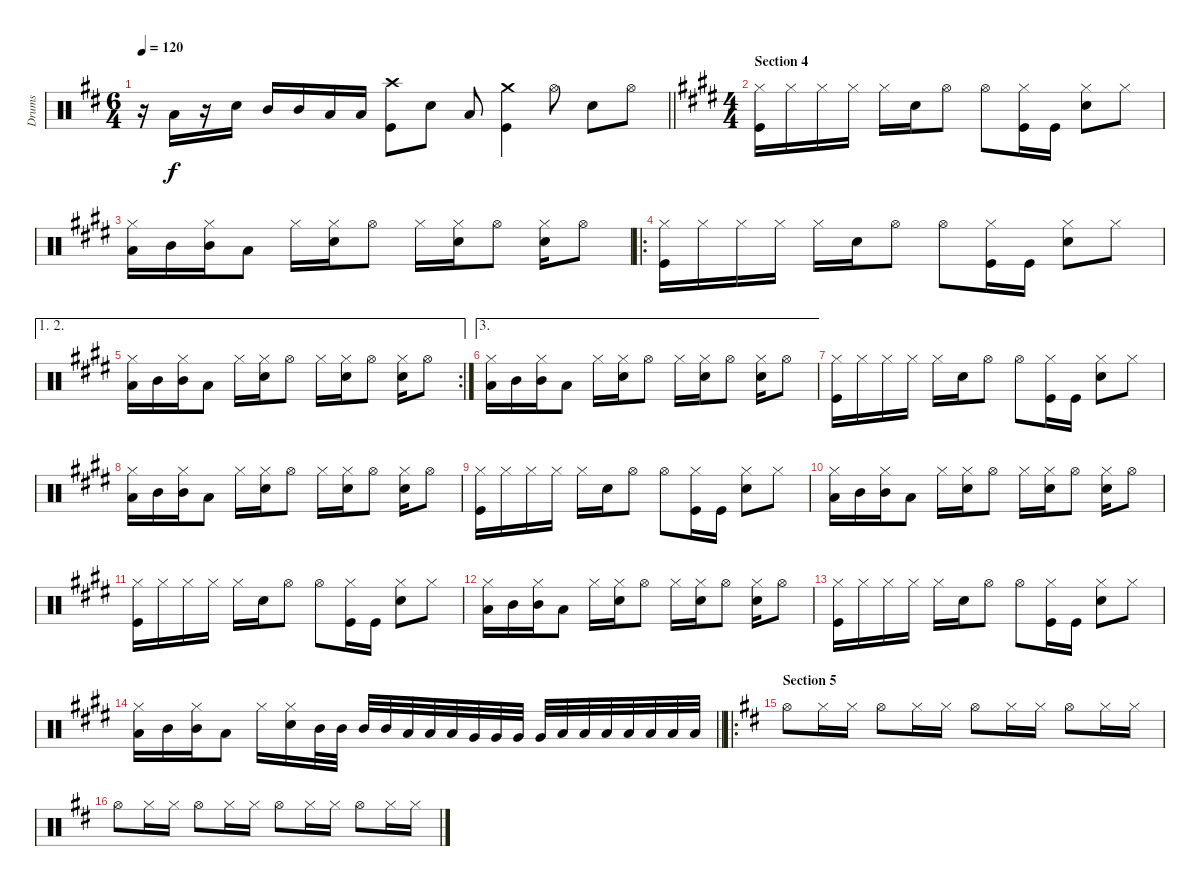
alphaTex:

\track ("Drums" "Drums") {instrument percussion}
\staff {score}
\articulation defaults
\ts (6 4)
\tempo 120
\clef neutral
\barLineRight lightlight
\ks d
r.16{dy f} "Low Tom (hit)".16 r.16 "Snare (hit) 2".16 "Mid Tom (hit)".16 "Mid Tom (hit)".16 "Low Tom (hit)".16 "Low Tom (hit)".16 ("Crash high (hit)" "Kick (hit)").8 "Snare (hit) 2".8 "Low Tom (hit)".8 ("Crash medium (hit)" "Kick (hit)").4 "Hi-Hat (open)".8 "Snare (hit) 2".8 "Hi-Hat (open)".8 |
\ts (4 4)
\section ("" "Section 4")
\ks e
("Hi-Hat (closed)" "Kick (hit)").16 "Hi-Hat (closed)".16 "Hi-Hat (closed)".16 "Hi-Hat (closed)".16 "Hi-Hat (closed)".16 "Snare (hit) 2".16 "Hi-Hat (open)".8 "Hi-Hat (open)".8 ("Hi-Hat (closed)" "Kick (hit)").16 "Kick (hit)".16 ("Hi-Hat (closed)" "Snare (hit) 2").8 "Hi-Hat (closed)".8 |
("Hi-Hat (closed)" "Low Tom (hit)").16 "Mid Tom (hit)".16 ("Hi-Hat (closed)" "Mid Tom (hit)").16 "Low Tom (hit)".8 "Hi-Hat (closed)".16 ("Hi-Hat (closed)" "Snare (hit) 2").16 "Hi-Hat (open)".8 "Hi-Hat (closed)".16 ("Hi-Hat (closed)" "Snare (hit) 2").16 "Hi-Hat (open)".8 ("Hi-Hat (closed)" "Snare (hit) 2").16 "Hi-Hat (open)".8 |
\ro
("Hi-Hat (closed)" "Kick (hit)").16 "Hi-Hat (closed)".16 "Hi-Hat (closed)".16 "Hi-Hat (closed)".16 "Hi-Hat (closed)".16 "Snare (hit) 2".16 "Hi-Hat (open)".8 "Hi-Hat (open)".8 ("Hi-Hat (closed)" "Kick (hit)").16 "Kick (hit)".16 ("Hi-Hat (closed)" "Snare (hit) 2").8 "Hi-Hat (closed)".8 |
\ae (1 2)
\rc 2
("Hi-Hat (closed)" "Low Tom (hit)").16 "Mid Tom (hit)".16 ("Hi-Hat (closed)" "Mid Tom (hit)").16 "Low Tom (hit)".8 "Hi-Hat (closed)".16 ("Hi-Hat (closed)" "Snare (hit) 2").16 "Hi-Hat (open)".8 "Hi-Hat (closed)".16 ("Hi-Hat (closed)" "Snare (hit) 2").16 "Hi-Hat (open)".8 ("Hi-Hat (closed)" "Snare (hit) 2").16 "Hi-Hat (open)".8 |
\ae 3
("Hi-Hat (closed)" "Low Tom (hit)").16 "Mid Tom (hit)".16 ("Hi-Hat (closed)" "Mid Tom (hit)").16 "Low Tom (hit)".8 "Hi-Hat (closed)".16 ("Hi-Hat (closed)" "Snare (hit) 2").16 "Hi-Hat (open)".8 "Hi-Hat (closed)".16 ("Hi-Hat (closed)" "Snare (hit) 2").16 "Hi-Hat (open)".8 ("Hi-Hat (closed)" "Snare (hit) 2").16 "Hi-Hat (open)".8 |
("Hi-Hat (closed)" "Kick (hit)").16 "Hi-Hat (closed)".16 "Hi-Hat (closed)".16 "Hi-Hat (closed)".16 "Hi-Hat (closed)".16 "Snare (hit) 2".16 "Hi-Hat (open)".8 "Hi-Hat (open)".8 ("Hi-Hat (closed)" "Kick (hit)").16 "Kick (hit)".16 ("Hi-Hat (closed)" "Snare (hit) 2").8 "Hi-Hat (closed)".8 |
("Hi-Hat (closed)" "Low Tom (hit)").16 "Mid Tom (hit)".16 ("Hi-Hat (closed)" "Mid Tom (hit)").16 "Low Tom (hit)".8 "Hi-Hat (closed)".16 ("Hi-Hat (closed)" "Snare (hit) 2").16 "Hi-Hat (open)".8 "Hi-Hat (closed)".16 ("Hi-Hat (closed)" "Snare (hit) 2").16 "Hi-Hat (open)".8 ("Hi-Hat (closed)" "Snare (hit) 2").16 "Hi-Hat (open)".8 |
("Hi-Hat (closed)" "Kick (hit)").16 "Hi-Hat (closed)".16 "Hi-Hat (closed)".16 "Hi-Hat (closed)".16 "Hi-Hat (closed)".16 "Snare (hit) 2".16 "Hi-Hat (open)".8 "Hi-Hat (open)".8 ("Hi-Hat (closed)" "Kick (hit)").16 "Kick (hit)".16 ("Hi-Hat (closed)" "Snare (hit) 2").8 "Hi-Hat (closed)".8 |
("Hi-Hat (closed)" "Low Tom (hit)").16 "Mid Tom (hit)".16 ("Hi-Hat (closed)" "Mid Tom (hit)").16 "Low Tom (hit)".8 "Hi-Hat (closed)".16 ("Hi-Hat (closed)" "Snare (hit) 2").16 "Hi-Hat (open)".8 "Hi-Hat (closed)".16 ("Hi-Hat (closed)" "Snare (hit) 2").16 "Hi-Hat (open)".8 ("Hi-Hat (closed)" "Snare (hit) 2").16 "Hi-Hat (open)".8 |
("Hi-Hat (closed)" "Kick (hit)").16 "Hi-Hat (closed)".16 "Hi-Hat (closed)".16 "Hi-Hat (closed)".16 "Hi-Hat (closed)".16 "Snare (hit) 2".16 "Hi-Hat (open)".8 "Hi-Hat (open)".8 ("Hi-Hat (closed)" "Kick (hit)").16 "Kick (hit)".16 ("Hi-Hat (closed)" "Snare (hit) 2").8 "Hi-Hat (closed)".8 |
("Hi-Hat (closed)" "Low Tom (hit)").16 "Mid Tom (hit)".16 ("Hi-Hat (closed)" "Mid Tom (hit)").16 "Low Tom (hit)".8 "Hi-Hat (closed)".16 ("Hi-Hat (closed)" "Snare (hit) 2").16 "Hi-Hat (open)".8 "Hi-Hat (closed)".16 ("Hi-Hat (closed)" "Snare (hit) 2").16 "Hi-Hat (open)".8 ("Hi-Hat (closed)" "Snare (hit) 2").16 "Hi-Hat (open)".8 |
("Hi-Hat (closed)" "Kick (hit)").16 "Hi-Hat (closed)".16 "Hi-Hat (closed)".16 "Hi-Hat (closed)".16 "Hi-Hat (closed)".16 "Snare (hit) 2".16 "Hi-Hat (open)".8 "Hi-Hat (open)".8 ("Hi-Hat (closed)" "Kick (hit)").16 "Kick (hit)".16 ("Hi-Hat (closed)" "Snare (hit) 2").8 "Hi-Hat (closed)".8 |
\barLineRight lightlight
("Hi-Hat (closed)" "Low Tom (hit)").16 "Mid Tom (hit)".16 ("Hi-Hat (closed)" "Mid Tom (hit)").16 "Low Tom (hit)".8 "Hi-Hat (closed)".16 ("Hi-Hat (closed)" "Snare (hit) 2").16 "Mid Tom (hit)".32 "Mid Tom (hit)".32 "Mid Tom (hit)".32 "Mid Tom (hit)".32 "Low Tom (hit)".32 "Low Tom (hit)".32 "Low Tom (hit)".32 "Very Low Tom (hit)".32 "Very Low Tom (hit)".32 "Very Low Tom (hit)".32 "Very Low Tom (hit)".32 "Low Floor Tom (hit)".32 "Low Floor Tom (hit)".32 "Low Floor Tom (hit)".32 "Low Floor Tom (hit)".32 "Low Floor Tom (hit)".32 "Low Floor Tom (hit)".32 "Low Floor Tom (hit)".32 |
\ro
\section ("" "Section 5")
\ks d "Hi-Hat (open)".8 "Hi-Hat (closed)".16 "Hi-Hat (closed)".16 "Hi-Hat (open)".8 "Hi-Hat (closed)".16 "Hi-Hat (closed)".16 "Hi-Hat (open)".8 "Hi-Hat (closed)".16 "Hi-Hat (closed)".16 "Hi-Hat (open)".8 "Hi-Hat (closed)".16 "Hi-Hat (closed)".16
|
"Hi-Hat (open)".8 "Hi-Hat (closed)".16 "Hi-Hat (closed)".16 "Hi-Hat (open)".8 "Hi-Hat (closed)".16 "Hi-Hat (closed)".16 "Hi-Hat (open)".8 "Hi-Hat (closed)".16 "Hi-Hat (closed)".16 "Hi-Hat (open)".8 "Hi-Hat (closed)".16 "Hi-Hat (closed)".16
